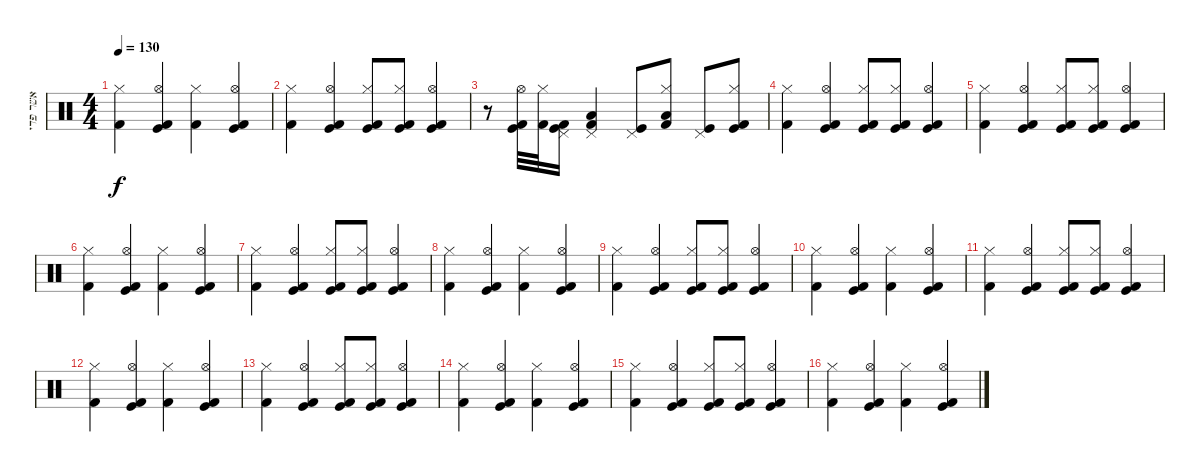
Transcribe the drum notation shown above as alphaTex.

\track ("אשר פדי" "אשר פדי") {instrument percussion}
\staff {score}
\articulation defaults
\ts (4 4)
\tempo 130
\clef neutral
\ks c
("Kick (hit) 2" "Hi-Hat (closed)").4{dy f} ("Hi-Hat (open)" "Kick (hit) 2" "Kick (hit)").4 ("Kick (hit) 2" "Hi-Hat (closed)").4 ("Hi-Hat (open)" "Kick (hit) 2" "Kick (hit)").4 |
("Kick (hit) 2" "Hi-Hat (closed)").4 ("Kick (hit) 2" "Hi-Hat (open)" "Kick (hit)").4 ("Kick (hit) 2" "Hi-Hat (closed)" "Kick (hit)").8 ("Kick (hit) 2" "Hi-Hat (closed)" "Kick (hit)").8 ("Hi-Hat (open)" "Kick (hit) 2" "Kick (hit)").4 |
r.8 ("Hi-Hat (open)" "Kick (hit) 2" "Kick (hit)").32 ("Kick (hit) 2" "Hi-Hat (closed)").32 ("Pedal Hi-Hat (hit)" "Kick (hit) 2" "Kick (hit)").16 ("Low Floor Tom (hit)" "Pedal Hi-Hat (hit)" "Kick (hit) 2").4 ("Pedal Hi-Hat (hit)" "Kick (hit)").8 ("Kick (hit) 2" "Low Floor Tom (hit)" "Hi-Hat (closed)").8 ("Pedal Hi-Hat (hit)" "Kick (hit)").8 ("Kick (hit) 2" "Kick (hit)" "Hi-Hat (closed)").8 |
("Kick (hit) 2" "Hi-Hat (closed)").4 ("Kick (hit) 2" "Hi-Hat (open)" "Kick (hit)").4 ("Kick (hit) 2" "Hi-Hat (closed)" "Kick (hit)").8 ("Kick (hit) 2" "Hi-Hat (closed)" "Kick (hit)").8 ("Hi-Hat (open)" "Kick (hit) 2" "Kick (hit)").4 |
("Kick (hit) 2" "Hi-Hat (closed)").4 ("Kick (hit) 2" "Hi-Hat (open)" "Kick (hit)").4 ("Kick (hit) 2" "Hi-Hat (closed)" "Kick (hit)").8 ("Kick (hit) 2" "Hi-Hat (closed)" "Kick (hit)").8 ("Hi-Hat (open)" "Kick (hit) 2" "Kick (hit)").4 |
("Kick (hit) 2" "Hi-Hat (closed)").4 ("Hi-Hat (open)" "Kick (hit) 2" "Kick (hit)").4 ("Kick (hit) 2" "Hi-Hat (closed)").4 ("Hi-Hat (open)" "Kick (hit) 2" "Kick (hit)").4 |
("Kick (hit) 2" "Hi-Hat (closed)").4 ("Kick (hit) 2" "Hi-Hat (open)" "Kick (hit)").4 ("Kick (hit) 2" "Hi-Hat (closed)" "Kick (hit)").8 ("Kick (hit) 2" "Hi-Hat (closed)" "Kick (hit)").8 ("Hi-Hat (open)" "Kick (hit) 2" "Kick (hit)").4 |
("Kick (hit) 2" "Hi-Hat (closed)").4 ("Hi-Hat (open)" "Kick (hit) 2" "Kick (hit)").4 ("Kick (hit) 2" "Hi-Hat (closed)").4 ("Hi-Hat (open)" "Kick (hit) 2" "Kick (hit)").4 |
("Kick (hit) 2" "Hi-Hat (closed)").4 ("Kick (hit) 2" "Hi-Hat (open)" "Kick (hit)").4 ("Kick (hit) 2" "Hi-Hat (closed)" "Kick (hit)").8 ("Kick (hit) 2" "Hi-Hat (closed)" "Kick (hit)").8 ("Hi-Hat (open)" "Kick (hit) 2" "Kick (hit)").4 |
("Kick (hit) 2" "Hi-Hat (closed)").4 ("Hi-Hat (open)" "Kick (hit) 2" "Kick (hit)").4 ("Kick (hit) 2" "Hi-Hat (closed)").4 ("Hi-Hat (open)" "Kick (hit) 2" "Kick (hit)").4 |
("Kick (hit) 2" "Hi-Hat (closed)").4 ("Kick (hit) 2" "Hi-Hat (open)" "Kick (hit)").4 ("Kick (hit) 2" "Hi-Hat (closed)" "Kick (hit)").8 ("Kick (hit) 2" "Hi-Hat (closed)" "Kick (hit)").8 ("Hi-Hat (open)" "Kick (hit) 2" "Kick (hit)").4 |
("Kick (hit) 2" "Hi-Hat (closed)").4 ("Hi-Hat (open)" "Kick (hit) 2" "Kick (hit)").4 ("Kick (hit) 2" "Hi-Hat (closed)").4 ("Hi-Hat (open)" "Kick (hit) 2" "Kick (hit)").4 |
("Kick (hit) 2" "Hi-Hat (closed)").4 ("Kick (hit) 2" "Hi-Hat (open)" "Kick (hit)").4 ("Kick (hit) 2" "Hi-Hat (closed)" "Kick (hit)").8 ("Kick (hit) 2" "Hi-Hat (closed)" "Kick (hit)").8 ("Hi-Hat (open)" "Kick (hit) 2" "Kick (hit)").4 |
("Kick (hit) 2" "Hi-Hat (closed)").4 ("Hi-Hat (open)" "Kick (hit) 2" "Kick (hit)").4 ("Kick (hit) 2" "Hi-Hat (closed)").4 ("Hi-Hat (open)" "Kick (hit) 2" "Kick (hit)").4 |
("Kick (hit) 2" "Hi-Hat (closed)").4 ("Kick (hit) 2" "Hi-Hat (open)" "Kick (hit)").4 ("Kick (hit) 2" "Hi-Hat (closed)" "Kick (hit)").8 ("Kick (hit) 2" "Hi-Hat (closed)" "Kick (hit)").8 ("Hi-Hat (open)" "Kick (hit) 2" "Kick (hit)").4 |
("Kick (hit) 2" "Hi-Hat (closed)").4 ("Hi-Hat (open)" "Kick (hit) 2" "Kick (hit)").4 ("Kick (hit) 2" "Hi-Hat (closed)").4 ("Hi-Hat (open)" "Kick (hit) 2" "Kick (hit)").4
